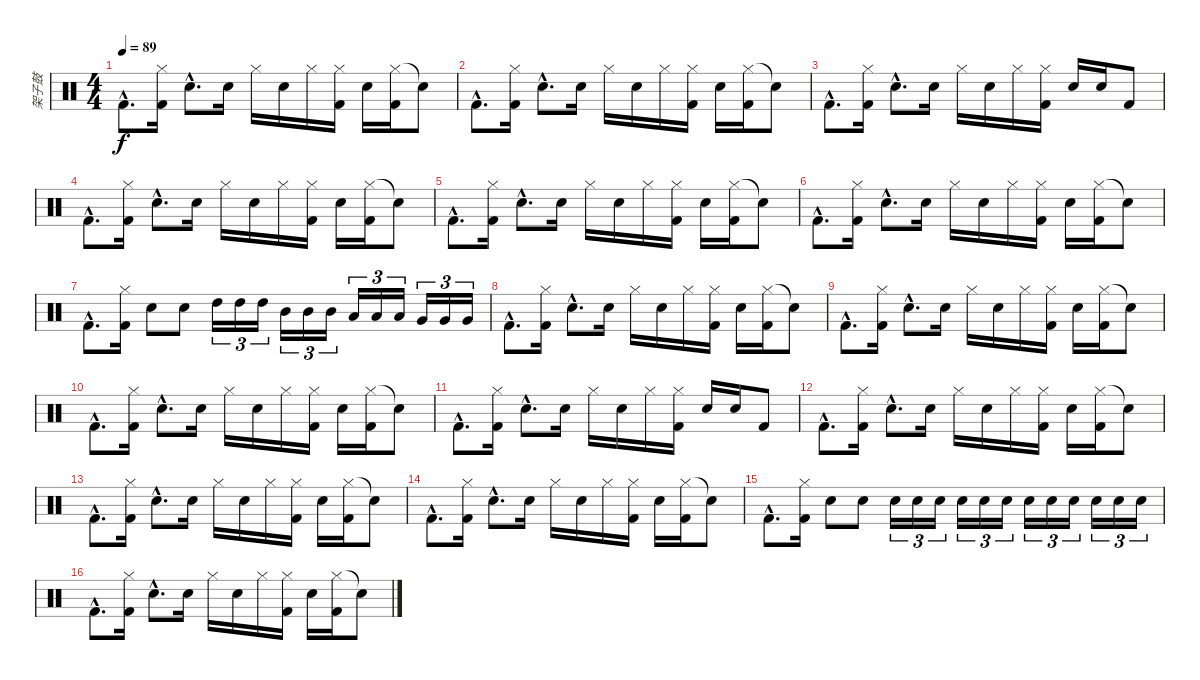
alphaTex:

\track ("架子鼓" "架子鼓") {instrument percussion}
\staff {score}
\articulation defaults
\ts (4 4)
\tempo 89
\clef neutral
\ks c "Kick (hit) 2"{hac}.8{d dy f}
("Hi-Hat (closed)" "Kick (hit) 2").16 "Snare (hit) 2"{hac}.8{d} "Snare (hit) 2".16 "Hi-Hat (closed)".16 "Snare (hit) 2".16 "Hi-Hat (closed)".16 ("Hi-Hat (closed)" "Kick (hit) 2").16 "Snare (hit) 2".16 ("Hi-Hat (closed)" "Kick (hit) 2").16 "Snare (hit)"{t}.8 |
"Kick (hit) 2"{hac}.8{d} ("Hi-Hat (closed)" "Kick (hit) 2").16 "Snare (hit) 2"{hac}.8{d} "Snare (hit) 2".16 "Hi-Hat (closed)".16 "Snare (hit) 2".16 "Hi-Hat (closed)".16 ("Hi-Hat (closed)" "Kick (hit) 2").16 "Snare (hit) 2".16 ("Hi-Hat (closed)" "Kick (hit) 2").16 "Snare (hit)"{t}.8 |
"Kick (hit) 2"{hac}.8{d} ("Hi-Hat (closed)" "Kick (hit) 2").16 "Snare (hit) 2"{hac}.8{d} "Snare (hit) 2".16 "Hi-Hat (closed)".16 "Snare (hit) 2".16 "Hi-Hat (closed)".16 ("Hi-Hat (closed)" "Kick (hit) 2").16 "Snare (hit) 2".16 "Snare (hit) 2".16 "Kick (hit) 2".8 |
"Kick (hit) 2"{hac}.8{d} ("Hi-Hat (closed)" "Kick (hit) 2").16 "Snare (hit) 2"{hac}.8{d} "Snare (hit) 2".16 "Hi-Hat (closed)".16 "Snare (hit) 2".16 "Hi-Hat (closed)".16 ("Hi-Hat (closed)" "Kick (hit) 2").16 "Snare (hit) 2".16 ("Hi-Hat (closed)" "Kick (hit) 2").16 "Snare (hit)"{t}.8 |
"Kick (hit) 2"{hac}.8{d} ("Hi-Hat (closed)" "Kick (hit) 2").16 "Snare (hit) 2"{hac}.8{d} "Snare (hit) 2".16 "Hi-Hat (closed)".16 "Snare (hit) 2".16 "Hi-Hat (closed)".16 ("Hi-Hat (closed)" "Kick (hit) 2").16 "Snare (hit) 2".16 ("Hi-Hat (closed)" "Kick (hit) 2").16 "Snare (hit)"{t}.8 |
"Kick (hit) 2"{hac}.8{d} ("Hi-Hat (closed)" "Kick (hit) 2").16 "Snare (hit) 2"{hac}.8{d} "Snare (hit) 2".16 "Hi-Hat (closed)".16 "Snare (hit) 2".16 "Hi-Hat (closed)".16 ("Hi-Hat (closed)" "Kick (hit) 2").16 "Snare (hit) 2".16 ("Hi-Hat (closed)" "Kick (hit) 2").16 "Snare (hit)"{t}.8 |
"Kick (hit) 2"{hac}.8{d} ("Hi-Hat (closed)" "Kick (hit) 2").16 "Snare (hit) 2".8 "Snare (hit) 2".8 "High Tom (hit)".16{tu (3 2)} "High Tom (hit)".16{tu (3 2)} "High Tom (hit)".16{tu (3 2)} "Mid Tom (hit)".16{tu (3 2)} "Mid Tom (hit)".16{tu (3 2)} "Mid Tom (hit)".16{tu (3 2)} "Low Tom (hit)".16{tu (3 2)} "Low Tom (hit)".16{tu (3 2)} "Low Tom (hit)".16{tu (3 2)} "Very Low Tom (hit)".16{tu (3 2)} "Very Low Tom (hit)".16{tu (3 2)} "Very Low Tom (hit)".16{tu (3 2)} |
"Kick (hit) 2"{hac}.8{d} ("Hi-Hat (closed)" "Kick (hit) 2").16 "Snare (hit) 2"{hac}.8{d} "Snare (hit) 2".16 "Hi-Hat (closed)".16 "Snare (hit) 2".16 "Hi-Hat (closed)".16 ("Hi-Hat (closed)" "Kick (hit) 2").16 "Snare (hit) 2".16 ("Hi-Hat (closed)" "Kick (hit) 2").16 "Snare (hit)"{t}.8 |
"Kick (hit) 2"{hac}.8{d} ("Hi-Hat (closed)" "Kick (hit) 2").16 "Snare (hit) 2"{hac}.8{d} "Snare (hit) 2".16 "Hi-Hat (closed)".16 "Snare (hit) 2".16 "Hi-Hat (closed)".16 ("Hi-Hat (closed)" "Kick (hit) 2").16 "Snare (hit) 2".16 ("Hi-Hat (closed)" "Kick (hit) 2").16 "Snare (hit)"{t}.8 |
"Kick (hit) 2"{hac}.8{d} ("Hi-Hat (closed)" "Kick (hit) 2").16 "Snare (hit) 2"{hac}.8{d} "Snare (hit) 2".16 "Hi-Hat (closed)".16 "Snare (hit) 2".16 "Hi-Hat (closed)".16 ("Hi-Hat (closed)" "Kick (hit) 2").16 "Snare (hit) 2".16 ("Hi-Hat (closed)" "Kick (hit) 2").16 "Snare (hit)"{t}.8 |
"Kick (hit) 2"{hac}.8{d} ("Hi-Hat (closed)" "Kick (hit) 2").16 "Snare (hit) 2"{hac}.8{d} "Snare (hit) 2".16 "Hi-Hat (closed)".16 "Snare (hit) 2".16 "Hi-Hat (closed)".16 ("Hi-Hat (closed)" "Kick (hit) 2").16 "Snare (hit) 2".16 "Snare (hit) 2".16 "Kick (hit) 2".8 |
"Kick (hit) 2"{hac}.8{d} ("Hi-Hat (closed)" "Kick (hit) 2").16 "Snare (hit) 2"{hac}.8{d} "Snare (hit) 2".16 "Hi-Hat (closed)".16 "Snare (hit) 2".16 "Hi-Hat (closed)".16 ("Hi-Hat (closed)" "Kick (hit) 2").16 "Snare (hit) 2".16 ("Hi-Hat (closed)" "Kick (hit) 2").16 "Snare (hit)"{t}.8 |
"Kick (hit) 2"{hac}.8{d} ("Hi-Hat (closed)" "Kick (hit) 2").16 "Snare (hit) 2"{hac}.8{d} "Snare (hit) 2".16 "Hi-Hat (closed)".16 "Snare (hit) 2".16 "Hi-Hat (closed)".16 ("Hi-Hat (closed)" "Kick (hit) 2").16 "Snare (hit) 2".16 ("Hi-Hat (closed)" "Kick (hit) 2").16 "Snare (hit)"{t}.8 |
"Kick (hit) 2"{hac}.8{d} ("Hi-Hat (closed)" "Kick (hit) 2").16 "Snare (hit) 2"{hac}.8{d} "Snare (hit) 2".16 "Hi-Hat (closed)".16 "Snare (hit) 2".16 "Hi-Hat (closed)".16 ("Hi-Hat (closed)" "Kick (hit) 2").16 "Snare (hit) 2".16 ("Hi-Hat (closed)" "Kick (hit) 2").16 "Snare (hit)"{t}.8 |
"Kick (hit) 2"{hac}.8{d} ("Hi-Hat (closed)" "Kick (hit) 2").16 "Snare (hit) 2".8 "Snare (hit) 2".8 "Snare (hit) 2".16{tu (3 2)} "Snare (hit) 2".16{tu (3 2)} "Snare (hit) 2".16{tu (3 2)} "Snare (hit) 2".16{tu (3 2)} "Snare (hit) 2".16{tu (3 2)} "Snare (hit) 2".16{tu (3 2)} "Snare (hit) 2".16{tu (3 2)} "Snare (hit) 2".16{tu (3 2)} "Snare (hit) 2".16{tu (3 2)} "Snare (hit) 2".16{tu (3 2)} "Snare (hit) 2".16{tu (3 2)} "Snare (hit) 2".16{tu (3 2)} |
"Kick (hit) 2"{hac}.8{d} ("Hi-Hat (closed)" "Kick (hit) 2").16 "Snare (hit) 2"{hac}.8{d} "Snare (hit) 2".16 "Hi-Hat (closed)".16 "Snare (hit) 2".16 "Hi-Hat (closed)".16 ("Hi-Hat (closed)" "Kick (hit) 2").16 "Snare (hit) 2".16 ("Hi-Hat (closed)" "Kick (hit) 2").16 "Snare (hit)"{t}.8
